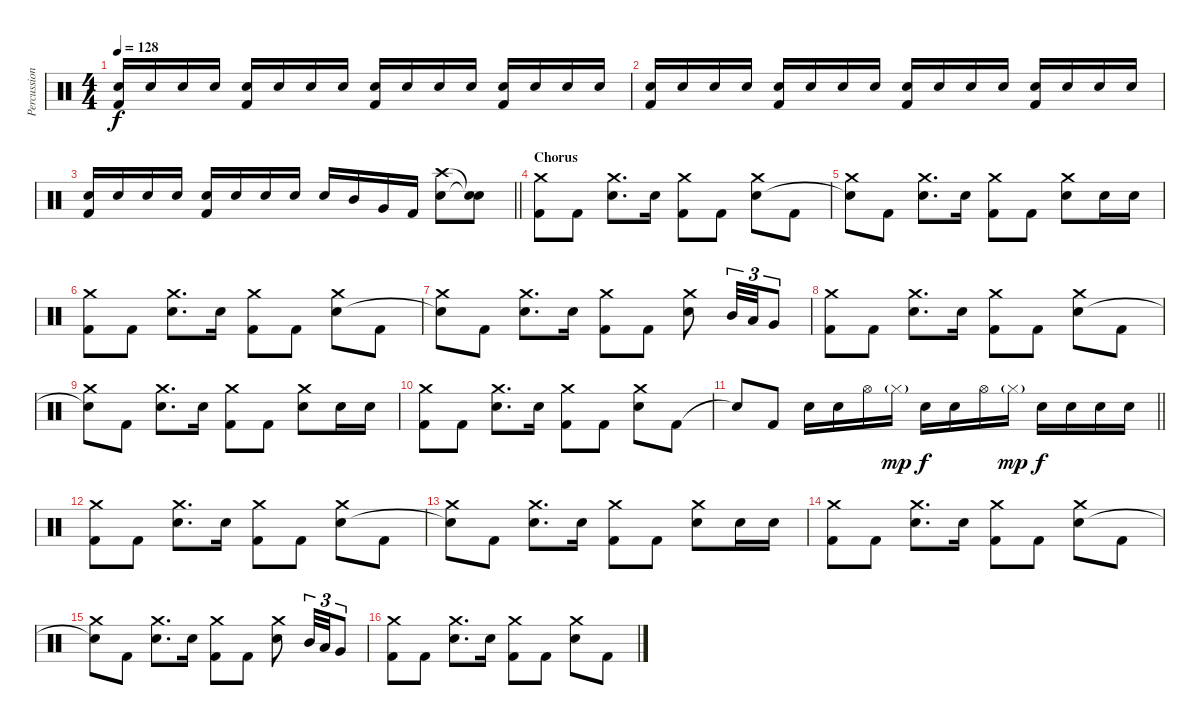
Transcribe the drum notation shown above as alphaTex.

\track ("Percussion" "Percussion") {instrument percussion}
\staff {score}
\articulation defaults
\ts (4 4)
\tempo 128
\clef neutral
\ks c
("Snare (hit) 2" "Kick (hit) 2").16{dy f} "Snare (hit) 2".16 "Snare (hit) 2".16 "Snare (hit) 2".16 ("Snare (hit) 2" "Kick (hit) 2").16 "Snare (hit) 2".16 "Snare (hit) 2".16 "Snare (hit) 2".16 ("Snare (hit) 2" "Kick (hit) 2").16 "Snare (hit) 2".16 "Snare (hit) 2".16 "Snare (hit) 2".16 ("Snare (hit) 2" "Kick (hit) 2").16 "Snare (hit) 2".16 "Snare (hit) 2".16 "Snare (hit) 2".16 |
("Snare (hit) 2" "Kick (hit) 2").16 "Snare (hit) 2".16 "Snare (hit) 2".16 "Snare (hit) 2".16 ("Snare (hit) 2" "Kick (hit) 2").16 "Snare (hit) 2".16 "Snare (hit) 2".16 "Snare (hit) 2".16 ("Snare (hit) 2" "Kick (hit) 2").16 "Snare (hit) 2".16 "Snare (hit) 2".16 "Snare (hit) 2".16 ("Snare (hit) 2" "Kick (hit) 2").16 "Snare (hit) 2".16 "Snare (hit) 2".16 "Snare (hit) 2".16 |
\barLineRight lightlight
("Snare (hit) 2" "Kick (hit) 2").16 "Snare (hit) 2".16 "Snare (hit) 2".16 "Snare (hit) 2".16 ("Snare (hit) 2" "Kick (hit) 2").16 "Snare (hit) 2".16 "Snare (hit) 2".16 "Snare (hit) 2".16 "Snare (hit) 2".16 "Mid Tom (hit)".16 "Very Low Tom (hit)".16 "Kick (hit) 2".16 ("Crash high (hit)" "Snare (hit) 2").8 ("Snare (hit)"{t} "Snare (hit)"{t}).8 |
\section ("" "Chorus")
("Crash medium (hit)" "Kick (hit) 2").8 "Kick (hit) 2".8 ("Crash medium (hit)" "Snare (hit) 2").8{d} "Snare (hit) 2".16 ("Crash medium (hit)" "Kick (hit) 2").8 "Kick (hit) 2".8 ("Crash medium (hit)" "Snare (hit) 2").8 "Kick (hit) 2".8 |
("Crash medium (hit)" "Snare (hit)"{t}).8 "Kick (hit) 2".8 ("Crash medium (hit)" "Snare (hit) 2").8{d} "Snare (hit) 2".16 ("Crash medium (hit)" "Kick (hit) 2").8 "Kick (hit) 2".8 ("Crash medium (hit)" "Snare (hit) 2").8 "Snare (hit) 2".16 "Snare (hit) 2".16 |
("Crash medium (hit)" "Kick (hit) 2").8 "Kick (hit) 2".8 ("Crash medium (hit)" "Snare (hit) 2").8{d} "Snare (hit) 2".16 ("Crash medium (hit)" "Kick (hit) 2").8 "Kick (hit) 2".8 ("Crash medium (hit)" "Snare (hit) 2").8 "Kick (hit) 2".8 |
("Crash medium (hit)" "Snare (hit)"{t}).8 "Kick (hit) 2".8 ("Crash medium (hit)" "Snare (hit) 2").8{d} "Snare (hit) 2".16 ("Crash medium (hit)" "Kick (hit) 2").8 "Kick (hit) 2".8 ("Crash medium (hit)" "Snare (hit) 2").8 "Mid Tom (hit)".32{tu (3 2)} "Low Tom (hit)".32{tu (3 2)} "Very Low Tom (hit)".8{tu (3 2)} |
("Crash medium (hit)" "Kick (hit) 2").8 "Kick (hit) 2".8 ("Crash medium (hit)" "Snare (hit) 2").8{d} "Snare (hit) 2".16 ("Crash medium (hit)" "Kick (hit) 2").8 "Kick (hit) 2".8 ("Crash medium (hit)" "Snare (hit) 2").8 "Kick (hit) 2".8 |
("Crash medium (hit)" "Snare (hit)"{t}).8 "Kick (hit) 2".8 ("Crash medium (hit)" "Snare (hit) 2").8{d} "Snare (hit) 2".16 ("Crash medium (hit)" "Kick (hit) 2").8 "Kick (hit) 2".8 ("Crash medium (hit)" "Snare (hit) 2").8 "Snare (hit) 2".16 "Snare (hit) 2".16 |
("Crash medium (hit)" "Kick (hit) 2").8 "Kick (hit) 2".8 ("Crash medium (hit)" "Snare (hit) 2").8{d} "Snare (hit) 2".16 ("Crash medium (hit)" "Kick (hit) 2").8 "Kick (hit) 2".8 ("Crash medium (hit)" "Snare (hit) 2").8 "Kick (hit) 2".8 |
\barLineRight lightlight "Snare (hit)"{t}.8 "Kick (hit) 2".8 "Snare (hit) 2".16 "Snare (hit) 2".16 "Hi-Hat (open)".16 "Hi-Hat (closed)"{g}.16{dy mp} "Snare (hit) 2".16{dy f} "Snare (hit) 2".16 "Hi-Hat (open)".16 "Hi-Hat (closed)"{g}.16{dy mp} "Snare (hit) 2".16{dy f} "Snare (hit) 2".16 "Snare (hit) 2".16 "Snare (hit) 2".16
|
("Crash medium (hit)" "Kick (hit) 2").8 "Kick (hit) 2".8 ("Crash medium (hit)" "Snare (hit) 2").8{d} "Snare (hit) 2".16 ("Crash medium (hit)" "Kick (hit) 2").8 "Kick (hit) 2".8 ("Crash medium (hit)" "Snare (hit) 2").8 "Kick (hit) 2".8 |
("Crash medium (hit)" "Snare (hit)"{t}).8 "Kick (hit) 2".8 ("Crash medium (hit)" "Snare (hit) 2").8{d} "Snare (hit) 2".16 ("Crash medium (hit)" "Kick (hit) 2").8 "Kick (hit) 2".8 ("Crash medium (hit)" "Snare (hit) 2").8 "Snare (hit) 2".16 "Snare (hit) 2".16 |
("Crash medium (hit)" "Kick (hit) 2").8 "Kick (hit) 2".8 ("Crash medium (hit)" "Snare (hit) 2").8{d} "Snare (hit) 2".16 ("Crash medium (hit)" "Kick (hit) 2").8 "Kick (hit) 2".8 ("Crash medium (hit)" "Snare (hit) 2").8 "Kick (hit) 2".8 |
("Crash medium (hit)" "Snare (hit)"{t}).8 "Kick (hit) 2".8 ("Crash medium (hit)" "Snare (hit) 2").8{d} "Snare (hit) 2".16 ("Crash medium (hit)" "Kick (hit) 2").8 "Kick (hit) 2".8 ("Crash medium (hit)" "Snare (hit) 2").8 "Mid Tom (hit)".32{tu (3 2)} "Low Tom (hit)".32{tu (3 2)} "Very Low Tom (hit)".8{tu (3 2)} |
("Crash medium (hit)" "Kick (hit) 2").8 "Kick (hit) 2".8 ("Crash medium (hit)" "Snare (hit) 2").8{d} "Snare (hit) 2".16 ("Crash medium (hit)" "Kick (hit) 2").8 "Kick (hit) 2".8 ("Crash medium (hit)" "Snare (hit) 2").8 "Kick (hit) 2".8
